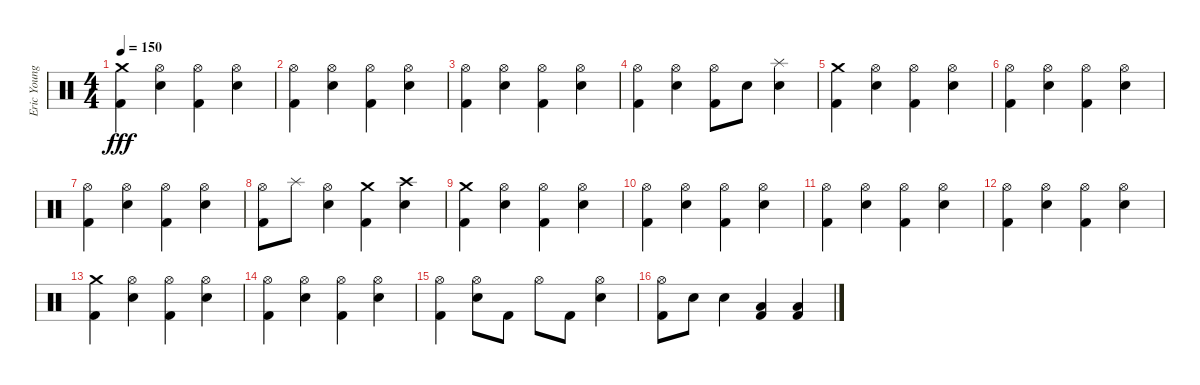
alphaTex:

\track ("Eric Young" "Eric Young") {instrument percussion}
\staff {score}
\articulation defaults
\ts (4 4)
\tempo 150
\clef neutral
\ks c
("Crash medium (hit)" "Kick (hit) 2").4{dy fff} ("Hi-Hat (open)" "Electric Snare (hit)").4 ("Hi-Hat (open)" "Kick (hit) 2").4 ("Hi-Hat (open)" "Electric Snare (hit)").4 |
("Hi-Hat (open)" "Kick (hit) 2").4 ("Hi-Hat (open)" "Electric Snare (hit)").4 ("Hi-Hat (open)" "Kick (hit) 2").4 ("Hi-Hat (open)" "Electric Snare (hit)").4 |
("Hi-Hat (open)" "Kick (hit) 2").4 ("Hi-Hat (open)" "Electric Snare (hit)").4 ("Hi-Hat (open)" "Kick (hit) 2").4 ("Hi-Hat (open)" "Electric Snare (hit)").4 |
("Hi-Hat (open)" "Kick (hit) 2").4 ("Hi-Hat (open)" "Electric Snare (hit)").4 ("Hi-Hat (open)" "Kick (hit) 2").8 "Electric Snare (hit)".8 ("Splash (hit)" "Electric Snare (hit)").4 |
("Crash medium (hit)" "Kick (hit) 2").4 ("Hi-Hat (open)" "Electric Snare (hit)").4 ("Hi-Hat (open)" "Kick (hit) 2").4 ("Hi-Hat (open)" "Electric Snare (hit)").4 |
("Hi-Hat (open)" "Kick (hit) 2").4 ("Hi-Hat (open)" "Electric Snare (hit)").4 ("Hi-Hat (open)" "Kick (hit) 2").4 ("Hi-Hat (open)" "Electric Snare (hit)").4 |
("Hi-Hat (open)" "Kick (hit) 2").4 ("Hi-Hat (open)" "Electric Snare (hit)").4 ("Hi-Hat (open)" "Kick (hit) 2").4 ("Hi-Hat (open)" "Electric Snare (hit)").4 |
("Hi-Hat (open)" "Kick (hit) 2").8 "Splash (hit)".8 ("Hi-Hat (open)" "Electric Snare (hit)").4 ("Crash medium (hit)" "Kick (hit) 2").4 ("Crash high (hit)" "Electric Snare (hit)").4 |
("Crash medium (hit)" "Kick (hit) 2").4 ("Hi-Hat (open)" "Electric Snare (hit)").4 ("Hi-Hat (open)" "Kick (hit) 2").4 ("Hi-Hat (open)" "Electric Snare (hit)").4 |
("Hi-Hat (open)" "Kick (hit) 2").4 ("Hi-Hat (open)" "Electric Snare (hit)").4 ("Hi-Hat (open)" "Kick (hit) 2").4 ("Hi-Hat (open)" "Electric Snare (hit)").4 |
("Hi-Hat (open)" "Kick (hit) 2").4 ("Hi-Hat (open)" "Electric Snare (hit)").4 ("Hi-Hat (open)" "Kick (hit) 2").4 ("Hi-Hat (open)" "Electric Snare (hit)").4 |
("Hi-Hat (open)" "Kick (hit) 2").4 ("Hi-Hat (open)" "Electric Snare (hit)").4 ("Hi-Hat (open)" "Kick (hit) 2").4 ("Hi-Hat (open)" "Electric Snare (hit)").4 |
("Crash medium (hit)" "Kick (hit) 2").4 ("Hi-Hat (open)" "Electric Snare (hit)").4 ("Hi-Hat (open)" "Kick (hit) 2").4 ("Hi-Hat (open)" "Electric Snare (hit)").4 |
("Hi-Hat (open)" "Kick (hit) 2").4 ("Hi-Hat (open)" "Electric Snare (hit)").4 ("Hi-Hat (open)" "Kick (hit) 2").4 ("Hi-Hat (open)" "Electric Snare (hit)").4 |
("Hi-Hat (open)" "Kick (hit) 2").4 ("Hi-Hat (open)" "Electric Snare (hit)").8 "Kick (hit) 2".8 "Hi-Hat (open)".8 "Kick (hit) 2".8 ("Hi-Hat (open)" "Electric Snare (hit)").4 |
("Hi-Hat (open)" "Kick (hit) 2").8 "Electric Snare (hit)".8 "Electric Snare (hit)".4 ("Low Tom (hit)" "Kick (hit) 2").4 ("Low Tom (hit)" "Kick (hit) 2").4
